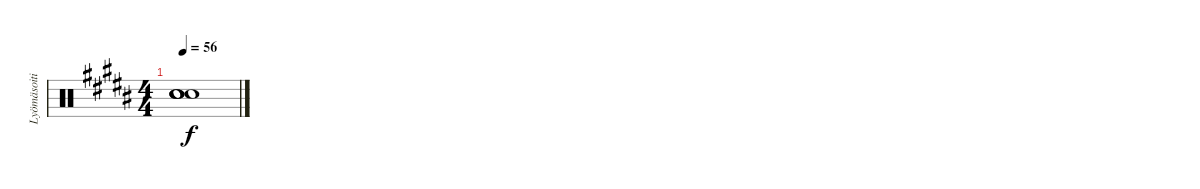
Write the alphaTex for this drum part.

\track ("Lyömäsoitin" "Lyömäsoiti") {instrument percussion}
\staff {score}
\articulation defaults
\ts (4 4)
\tempo 56
\clef neutral
\ks b
("Snare (hit)"{t} "Snare (hit)"{t} "Snare (hit)"{t} "Snare (hit)"{t}).1{dy f}
